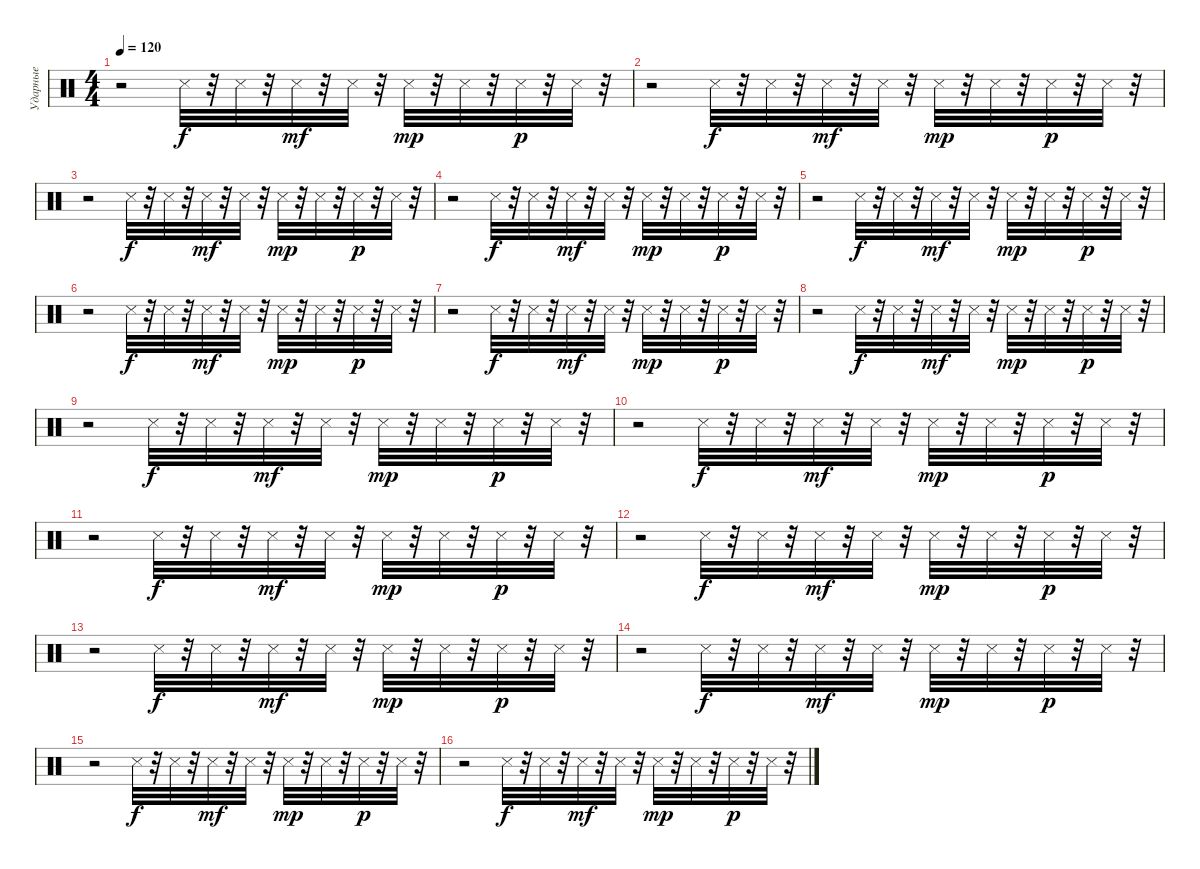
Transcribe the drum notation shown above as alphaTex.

\track ("Ударные" "Ударные") {instrument percussion}
\staff {score}
\articulation defaults
\ts (4 4)
\tempo 120
\clef neutral
\ks c
r.2{dy p} "Snare (side stick) 3".32{dy f} r.32 "Snare (side stick) 3".32 r.32 "Snare (side stick) 3".32{dy mf} r.32 "Snare (side stick) 3".32 r.32 "Snare (side stick) 3".32{dy mp} r.32 "Snare (side stick) 3".32 r.32 "Snare (side stick) 3".32{dy p} r.32 "Snare (side stick) 3".32 r.32 |
r.2 "Snare (side stick) 3".32{dy f} r.32 "Snare (side stick) 3".32 r.32 "Snare (side stick) 3".32{dy mf} r.32 "Snare (side stick) 3".32 r.32 "Snare (side stick) 3".32{dy mp} r.32 "Snare (side stick) 3".32 r.32 "Snare (side stick) 3".32{dy p} r.32 "Snare (side stick) 3".32 r.32 |
r.2 "Snare (side stick) 3".32{dy f} r.32 "Snare (side stick) 3".32 r.32 "Snare (side stick) 3".32{dy mf} r.32 "Snare (side stick) 3".32 r.32 "Snare (side stick) 3".32{dy mp} r.32 "Snare (side stick) 3".32 r.32 "Snare (side stick) 3".32{dy p} r.32 "Snare (side stick) 3".32 r.32 |
r.2 "Snare (side stick) 3".32{dy f} r.32 "Snare (side stick) 3".32 r.32 "Snare (side stick) 3".32{dy mf} r.32 "Snare (side stick) 3".32 r.32 "Snare (side stick) 3".32{dy mp} r.32 "Snare (side stick) 3".32 r.32 "Snare (side stick) 3".32{dy p} r.32 "Snare (side stick) 3".32 r.32 |
r.2 "Snare (side stick) 3".32{dy f} r.32 "Snare (side stick) 3".32 r.32 "Snare (side stick) 3".32{dy mf} r.32 "Snare (side stick) 3".32 r.32 "Snare (side stick) 3".32{dy mp} r.32 "Snare (side stick) 3".32 r.32 "Snare (side stick) 3".32{dy p} r.32 "Snare (side stick) 3".32 r.32 |
r.2 "Snare (side stick) 3".32{dy f} r.32 "Snare (side stick) 3".32 r.32 "Snare (side stick) 3".32{dy mf} r.32 "Snare (side stick) 3".32 r.32 "Snare (side stick) 3".32{dy mp} r.32 "Snare (side stick) 3".32 r.32 "Snare (side stick) 3".32{dy p} r.32 "Snare (side stick) 3".32 r.32 |
r.2 "Snare (side stick) 3".32{dy f} r.32 "Snare (side stick) 3".32 r.32 "Snare (side stick) 3".32{dy mf} r.32 "Snare (side stick) 3".32 r.32 "Snare (side stick) 3".32{dy mp} r.32 "Snare (side stick) 3".32 r.32 "Snare (side stick) 3".32{dy p} r.32 "Snare (side stick) 3".32 r.32 |
r.2 "Snare (side stick) 3".32{dy f} r.32 "Snare (side stick) 3".32 r.32 "Snare (side stick) 3".32{dy mf} r.32 "Snare (side stick) 3".32 r.32 "Snare (side stick) 3".32{dy mp} r.32 "Snare (side stick) 3".32 r.32 "Snare (side stick) 3".32{dy p} r.32 "Snare (side stick) 3".32 r.32 |
r.2 "Snare (side stick) 3".32{dy f} r.32 "Snare (side stick) 3".32 r.32 "Snare (side stick) 3".32{dy mf} r.32 "Snare (side stick) 3".32 r.32 "Snare (side stick) 3".32{dy mp} r.32 "Snare (side stick) 3".32 r.32 "Snare (side stick) 3".32{dy p} r.32 "Snare (side stick) 3".32 r.32 |
r.2 "Snare (side stick) 3".32{dy f} r.32 "Snare (side stick) 3".32 r.32 "Snare (side stick) 3".32{dy mf} r.32 "Snare (side stick) 3".32 r.32 "Snare (side stick) 3".32{dy mp} r.32 "Snare (side stick) 3".32 r.32 "Snare (side stick) 3".32{dy p} r.32 "Snare (side stick) 3".32 r.32 |
r.2 "Snare (side stick) 3".32{dy f} r.32 "Snare (side stick) 3".32 r.32 "Snare (side stick) 3".32{dy mf} r.32 "Snare (side stick) 3".32 r.32 "Snare (side stick) 3".32{dy mp} r.32 "Snare (side stick) 3".32 r.32 "Snare (side stick) 3".32{dy p} r.32 "Snare (side stick) 3".32 r.32 |
r.2 "Snare (side stick) 3".32{dy f} r.32 "Snare (side stick) 3".32 r.32 "Snare (side stick) 3".32{dy mf} r.32 "Snare (side stick) 3".32 r.32 "Snare (side stick) 3".32{dy mp} r.32 "Snare (side stick) 3".32 r.32 "Snare (side stick) 3".32{dy p} r.32 "Snare (side stick) 3".32 r.32 |
r.2 "Snare (side stick) 3".32{dy f} r.32 "Snare (side stick) 3".32 r.32 "Snare (side stick) 3".32{dy mf} r.32 "Snare (side stick) 3".32 r.32 "Snare (side stick) 3".32{dy mp} r.32 "Snare (side stick) 3".32 r.32 "Snare (side stick) 3".32{dy p} r.32 "Snare (side stick) 3".32 r.32 |
r.2 "Snare (side stick) 3".32{dy f} r.32 "Snare (side stick) 3".32 r.32 "Snare (side stick) 3".32{dy mf} r.32 "Snare (side stick) 3".32 r.32 "Snare (side stick) 3".32{dy mp} r.32 "Snare (side stick) 3".32 r.32 "Snare (side stick) 3".32{dy p} r.32 "Snare (side stick) 3".32 r.32 |
r.2 "Snare (side stick) 3".32{dy f} r.32 "Snare (side stick) 3".32 r.32 "Snare (side stick) 3".32{dy mf} r.32 "Snare (side stick) 3".32 r.32 "Snare (side stick) 3".32{dy mp} r.32 "Snare (side stick) 3".32 r.32 "Snare (side stick) 3".32{dy p} r.32 "Snare (side stick) 3".32 r.32 |
r.2 "Snare (side stick) 3".32{dy f} r.32 "Snare (side stick) 3".32 r.32 "Snare (side stick) 3".32{dy mf} r.32 "Snare (side stick) 3".32 r.32 "Snare (side stick) 3".32{dy mp} r.32 "Snare (side stick) 3".32 r.32 "Snare (side stick) 3".32{dy p} r.32 "Snare (side stick) 3".32 r.32
